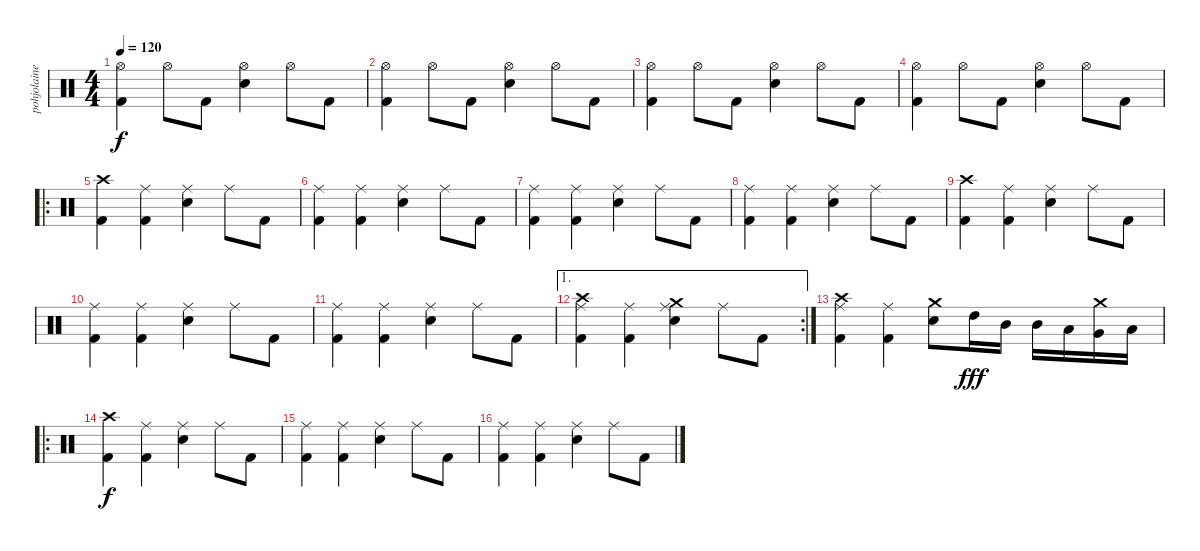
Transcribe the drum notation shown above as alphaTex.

\track ("pohjolainen" "pohjolaine") {instrument percussion}
\staff {score}
\articulation defaults
\ts (4 4)
\tempo 120
\clef neutral
\ks c
("Kick (hit) 2" "Hi-Hat (open)").4{dy f} "Hi-Hat (open)".8 "Kick (hit) 2".8 ("Hi-Hat (open)" "Snare (hit) 2").4 "Hi-Hat (open)".8 "Kick (hit) 2".8 |
("Kick (hit) 2" "Hi-Hat (open)").4 "Hi-Hat (open)".8 "Kick (hit) 2".8 ("Hi-Hat (open)" "Snare (hit) 2").4 "Hi-Hat (open)".8 "Kick (hit) 2".8 |
("Kick (hit) 2" "Hi-Hat (open)").4 "Hi-Hat (open)".8 "Kick (hit) 2".8 ("Hi-Hat (open)" "Snare (hit) 2").4 "Hi-Hat (open)".8 "Kick (hit) 2".8 |
("Kick (hit) 2" "Hi-Hat (open)").4 "Hi-Hat (open)".8 "Kick (hit) 2".8 ("Hi-Hat (open)" "Snare (hit) 2").4 "Hi-Hat (open)".8 "Kick (hit) 2".8 |
\ro
("Kick (hit) 2" "Crash high (hit)").4 ("Kick (hit) 2" "Ride (middle)").4 ("Ride (middle)" "Snare (hit) 2").4 "Ride (middle)".8 "Kick (hit) 2".8 |
("Kick (hit) 2" "Ride (middle)").4 ("Kick (hit) 2" "Ride (middle)").4 ("Ride (middle)" "Snare (hit) 2").4 "Ride (middle)".8 "Kick (hit) 2".8 |
("Kick (hit) 2" "Ride (middle)").4 ("Kick (hit) 2" "Ride (middle)").4 ("Ride (middle)" "Snare (hit) 2").4 "Ride (middle)".8 "Kick (hit) 2".8 |
("Kick (hit) 2" "Ride (middle)").4 ("Kick (hit) 2" "Ride (middle)").4 ("Ride (middle)" "Snare (hit) 2").4 "Ride (middle)".8 "Kick (hit) 2".8 |
("Kick (hit) 2" "Crash high (hit)").4 ("Kick (hit) 2" "Ride (middle)").4 ("Ride (middle)" "Snare (hit) 2").4 "Ride (middle)".8 "Kick (hit) 2".8 |
("Kick (hit) 2" "Ride (middle)").4 ("Kick (hit) 2" "Ride (middle)").4 ("Ride (middle)" "Snare (hit) 2").4 "Ride (middle)".8 "Kick (hit) 2".8 |
("Kick (hit) 2" "Ride (middle)").4 ("Kick (hit) 2" "Ride (middle)").4 ("Ride (middle)" "Snare (hit) 2").4 "Ride (middle)".8 "Kick (hit) 2".8 |
\ae 1
\rc 2
("Kick (hit) 2" "Crash high (hit)" "Ride (middle)").4 ("Kick (hit) 2" "Ride (middle)").4 ("Crash medium (hit)" "Ride (middle)" "Snare (hit) 2").4 "Ride (middle)".8 "Kick (hit) 2".8 |
("Kick (hit) 2" "Crash high (hit)" "Ride (middle)").4 ("Kick (hit) 2" "Ride (middle)").4 ("Crash medium (hit)" "Snare (hit) 2").8 "High Tom (hit)".16{dy fff} "Mid Tom (hit)".16 "Mid Tom (hit)".16 "Low Tom (hit)".16 ("Crash medium (hit)" "Very Low Tom (hit)").16 "Low Floor Tom (hit)".16 |
\ro
("Kick (hit) 2" "Crash high (hit)").4{dy f} ("Kick (hit) 2" "Ride (middle)").4 ("Ride (middle)" "Snare (hit) 2").4 "Ride (middle)".8 "Kick (hit) 2".8 |
("Kick (hit) 2" "Ride (middle)").4 ("Kick (hit) 2" "Ride (middle)").4 ("Ride (middle)" "Snare (hit) 2").4 "Ride (middle)".8 "Kick (hit) 2".8 |
("Kick (hit) 2" "Ride (middle)").4 ("Kick (hit) 2" "Ride (middle)").4 ("Ride (middle)" "Snare (hit) 2").4 "Ride (middle)".8 "Kick (hit) 2".8
